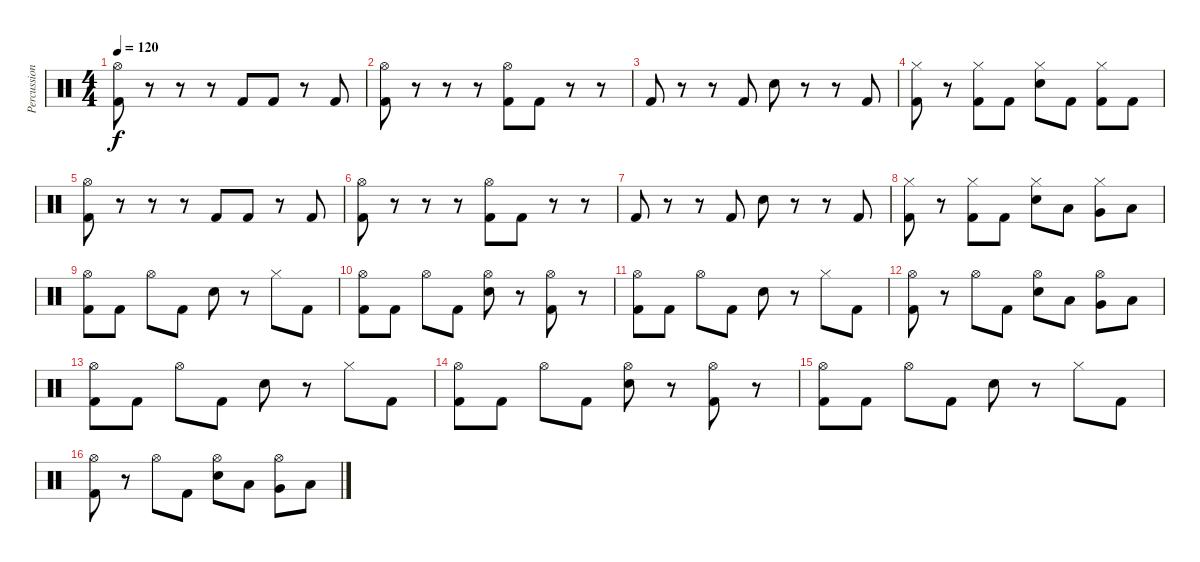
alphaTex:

\track ("Percussions" "Percussion") {instrument percussion}
\staff {score}
\articulation defaults
\ts (4 4)
\tempo 120
\clef neutral
\ks c
("Hi-Hat (open)" "Kick (hit) 2").8{dy f} r.8 r.8 r.8 "Kick (hit) 2".8 "Kick (hit) 2".8 r.8 "Kick (hit) 2".8 |
("Hi-Hat (open)" "Kick (hit) 2").8 r.8 r.8 r.8 ("Hi-Hat (open)" "Kick (hit) 2").8 "Kick (hit) 2".8 r.8 r.8 |
"Kick (hit) 2".8 r.8 r.8 "Kick (hit) 2".8 "Snare (hit) 2".8 r.8 r.8 "Kick (hit) 2".8 |
("Hi-Hat (closed)" "Kick (hit) 2").8 r.8 ("Hi-Hat (closed)" "Kick (hit) 2").8 "Kick (hit) 2".8 ("Hi-Hat (closed)" "Snare (hit) 2").8 "Kick (hit) 2".8 ("Hi-Hat (closed)" "Kick (hit) 2").8 "Kick (hit) 2".8 |
("Hi-Hat (open)" "Kick (hit) 2").8 r.8 r.8 r.8 "Kick (hit) 2".8 "Kick (hit) 2".8 r.8 "Kick (hit) 2".8 |
("Hi-Hat (open)" "Kick (hit) 2").8 r.8 r.8 r.8 ("Hi-Hat (open)" "Kick (hit) 2").8 "Kick (hit) 2".8 r.8 r.8 |
"Kick (hit) 2".8 r.8 r.8 "Kick (hit) 2".8 "Snare (hit) 2".8 r.8 r.8 "Kick (hit) 2".8 |
("Hi-Hat (closed)" "Kick (hit) 2").8 r.8 ("Hi-Hat (closed)" "Kick (hit) 2").8 "Kick (hit) 2".8 ("Hi-Hat (closed)" "Snare (hit) 2").8 "Low Tom (hit)".8 ("Hi-Hat (closed)" "Very Low Tom (hit)").8 "Low Floor Tom (hit)".8 |
("Hi-Hat (open)" "Kick (hit) 2").8 "Kick (hit) 2".8 "Hi-Hat (open)".8 "Kick (hit) 2".8 "Snare (hit) 2".8 r.8 "Hi-Hat (closed)".8 "Kick (hit) 2".8 |
("Hi-Hat (open)" "Kick (hit) 2").8 "Kick (hit) 2".8 "Hi-Hat (open)".8 "Kick (hit) 2".8 ("Hi-Hat (open)" "Snare (hit) 2").8 r.8 ("Hi-Hat (open)" "Kick (hit) 2").8 r.8 |
("Hi-Hat (open)" "Kick (hit) 2").8 "Kick (hit) 2".8 "Hi-Hat (open)".8 "Kick (hit) 2".8 "Snare (hit) 2".8 r.8 "Hi-Hat (closed)".8 "Kick (hit) 2".8 |
("Hi-Hat (open)" "Kick (hit) 2").8 r.8 "Hi-Hat (open)".8 "Kick (hit) 2".8 ("Hi-Hat (open)" "Snare (hit) 2").8 "Low Tom (hit)".8 ("Hi-Hat (open)" "Very Low Tom (hit)").8 "Low Floor Tom (hit)".8 |
("Hi-Hat (open)" "Kick (hit) 2").8 "Kick (hit) 2".8 "Hi-Hat (open)".8 "Kick (hit) 2".8 "Snare (hit) 2".8 r.8 "Hi-Hat (closed)".8 "Kick (hit) 2".8 |
("Hi-Hat (open)" "Kick (hit) 2").8 "Kick (hit) 2".8 "Hi-Hat (open)".8 "Kick (hit) 2".8 ("Hi-Hat (open)" "Snare (hit) 2").8 r.8 ("Hi-Hat (open)" "Kick (hit) 2").8 r.8 |
("Hi-Hat (open)" "Kick (hit) 2").8 "Kick (hit) 2".8 "Hi-Hat (open)".8 "Kick (hit) 2".8 "Snare (hit) 2".8 r.8 "Hi-Hat (closed)".8 "Kick (hit) 2".8 |
("Hi-Hat (open)" "Kick (hit) 2").8 r.8 "Hi-Hat (open)".8 "Kick (hit) 2".8 ("Hi-Hat (open)" "Snare (hit) 2").8 "Low Tom (hit)".8 ("Hi-Hat (open)" "Very Low Tom (hit)").8 "Low Floor Tom (hit)".8
